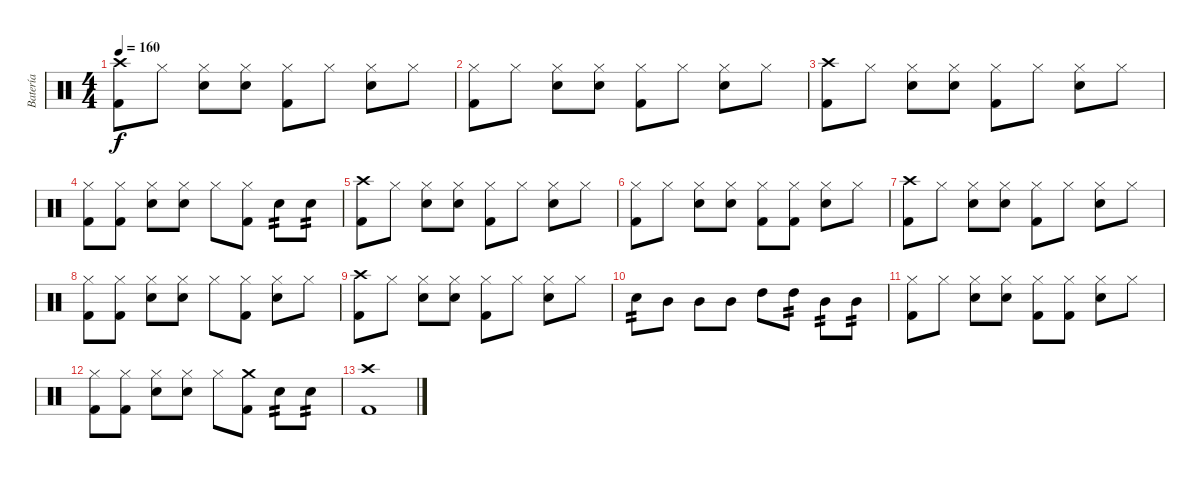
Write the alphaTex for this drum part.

\track ("Batería" "Batería") {instrument percussion}
\staff {score}
\articulation defaults
\ts (4 4)
\tempo 160
\clef neutral
\ks c
("Crash high (hit)" "Kick (hit) 2").8{dy f} "Hi-Hat (closed)".8 ("Hi-Hat (closed)" "Electric Snare (hit)").8 ("Hi-Hat (closed)" "Electric Snare (hit)").8 ("Hi-Hat (closed)" "Kick (hit) 2").8 "Hi-Hat (closed)".8 ("Hi-Hat (closed)" "Electric Snare (hit)").8 "Hi-Hat (closed)".8 |
("Hi-Hat (closed)" "Kick (hit) 2").8 "Hi-Hat (closed)".8 ("Hi-Hat (closed)" "Electric Snare (hit)").8 ("Hi-Hat (closed)" "Electric Snare (hit)").8 ("Hi-Hat (closed)" "Kick (hit) 2").8 "Hi-Hat (closed)".8 ("Hi-Hat (closed)" "Electric Snare (hit)").8 "Hi-Hat (closed)".8 |
("Crash high (hit)" "Kick (hit) 2").8 "Hi-Hat (closed)".8 ("Hi-Hat (closed)" "Electric Snare (hit)").8 ("Hi-Hat (closed)" "Electric Snare (hit)").8 ("Hi-Hat (closed)" "Kick (hit) 2").8 "Hi-Hat (closed)".8 ("Hi-Hat (closed)" "Electric Snare (hit)").8 "Hi-Hat (closed)".8 |
("Hi-Hat (closed)" "Kick (hit) 2").8 ("Hi-Hat (closed)" "Kick (hit) 2").8 ("Hi-Hat (closed)" "Electric Snare (hit)").8 ("Hi-Hat (closed)" "Electric Snare (hit)").8 "Hi-Hat (closed)".8 ("Hi-Hat (closed)" "Kick (hit) 2").8 "Electric Snare (hit)".8{tp 2} "Electric Snare (hit)".8{tp 2} |
("Crash high (hit)" "Kick (hit) 2").8 "Hi-Hat (closed)".8 ("Hi-Hat (closed)" "Electric Snare (hit)").8 ("Hi-Hat (closed)" "Electric Snare (hit)").8 ("Hi-Hat (closed)" "Kick (hit) 2").8 "Hi-Hat (closed)".8 ("Hi-Hat (closed)" "Electric Snare (hit)").8 "Hi-Hat (closed)".8 |
("Hi-Hat (closed)" "Kick (hit) 2").8 "Hi-Hat (closed)".8 ("Hi-Hat (closed)" "Electric Snare (hit)").8 ("Hi-Hat (closed)" "Electric Snare (hit)").8 ("Hi-Hat (closed)" "Kick (hit) 2").8 ("Hi-Hat (closed)" "Kick (hit) 2").8 ("Hi-Hat (closed)" "Electric Snare (hit)").8 "Hi-Hat (closed)".8 |
("Crash high (hit)" "Kick (hit) 2").8 "Hi-Hat (closed)".8 ("Hi-Hat (closed)" "Electric Snare (hit)").8 ("Hi-Hat (closed)" "Electric Snare (hit)").8 ("Hi-Hat (closed)" "Kick (hit) 2").8 "Hi-Hat (closed)".8 ("Hi-Hat (closed)" "Electric Snare (hit)").8 "Hi-Hat (closed)".8 |
("Hi-Hat (closed)" "Kick (hit) 2").8 ("Hi-Hat (closed)" "Kick (hit) 2").8 ("Hi-Hat (closed)" "Electric Snare (hit)").8 ("Hi-Hat (closed)" "Electric Snare (hit)").8 "Hi-Hat (closed)".8 ("Hi-Hat (closed)" "Kick (hit) 2").8 ("Hi-Hat (closed)" "Electric Snare (hit)").8 "Hi-Hat (closed)".8 |
("Crash high (hit)" "Kick (hit) 2").8 "Hi-Hat (closed)".8 ("Hi-Hat (closed)" "Electric Snare (hit)").8 ("Hi-Hat (closed)" "Electric Snare (hit)").8 ("Hi-Hat (closed)" "Kick (hit) 2").8 "Hi-Hat (closed)".8 ("Hi-Hat (closed)" "Electric Snare (hit)").8 "Hi-Hat (closed)".8 |
"Electric Snare (hit)".8{tp 2} "Mid Tom (hit)".8 "Mid Tom (hit)".8 "Mid Tom (hit)".8 "High Tom (hit)".8 "High Tom (hit)".8{tp 2} "Mid Tom (hit)".8{tp 2} "Mid Tom (hit)".8{tp 2} |
("Hi-Hat (closed)" "Kick (hit) 2").8 "Hi-Hat (closed)".8 ("Hi-Hat (closed)" "Electric Snare (hit)").8 ("Hi-Hat (closed)" "Electric Snare (hit)").8 ("Hi-Hat (closed)" "Kick (hit) 2").8 ("Hi-Hat (closed)" "Kick (hit) 2").8 ("Hi-Hat (closed)" "Electric Snare (hit)").8 "Hi-Hat (closed)".8 |
("Hi-Hat (closed)" "Kick (hit) 2").8 ("Hi-Hat (closed)" "Kick (hit) 2").8 ("Hi-Hat (closed)" "Electric Snare (hit)").8 ("Hi-Hat (closed)" "Electric Snare (hit)").8 "Hi-Hat (closed)".8 ("Crash medium (hit)" "Kick (hit) 2").8 "Electric Snare (hit)".8{tp 2} "Electric Snare (hit)".8{tp 2} |
("Crash high (hit)" "Kick (hit) 2").1
